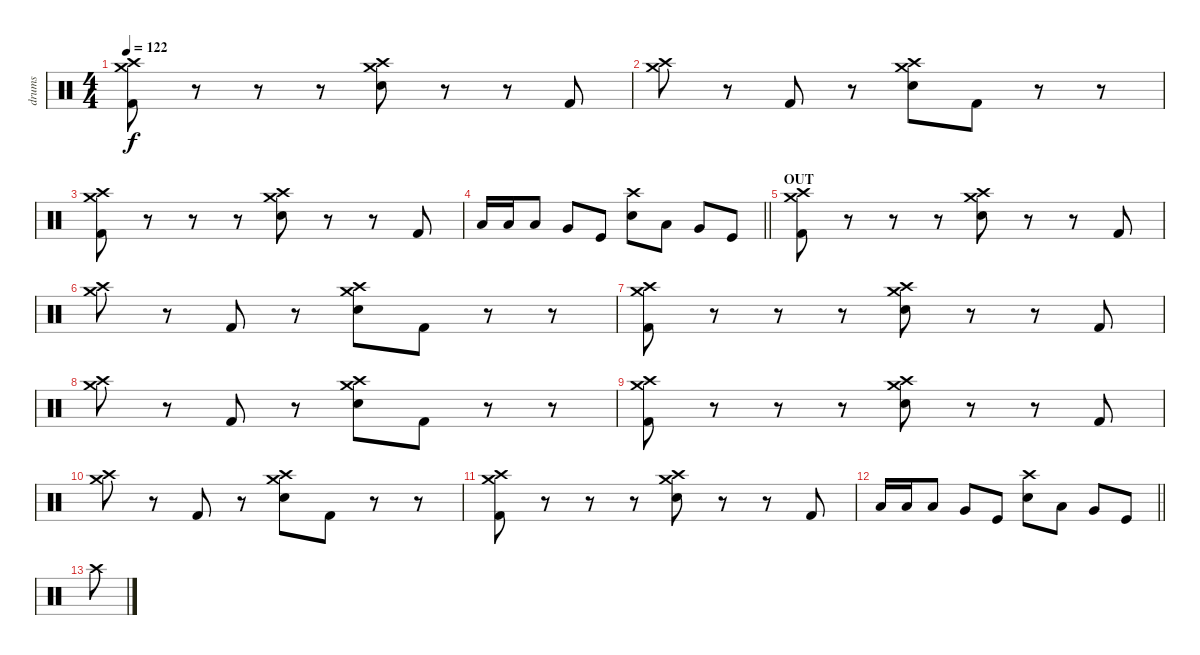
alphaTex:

\track ("drums" "drums") {instrument percussion}
\staff {score}
\articulation defaults
\ts (4 4)
\tempo 122
\clef neutral
\ks c
("Crash medium (hit)" "Crash high (hit)" "Kick (hit) 2").8{dy f} r.8 r.8 r.8 ("Crash medium (hit)" "Crash high (hit)" "Electric Snare (hit)").8 r.8 r.8 "Kick (hit) 2".8 |
("Crash medium (hit)" "Crash high (hit)").8 r.8 "Kick (hit) 2".8 r.8 ("Crash medium (hit)" "Crash high (hit)" "Electric Snare (hit)").8 "Kick (hit) 2".8 r.8 r.8 |
("Crash medium (hit)" "Crash high (hit)" "Kick (hit) 2").8 r.8 r.8 r.8 ("Crash medium (hit)" "Crash high (hit)" "Electric Snare (hit)").8 r.8 r.8 "Kick (hit) 2".8 |
\barLineRight lightlight "Low Tom (hit)".16 "Low Tom (hit)".16 "Low Tom (hit)".8 "Very Low Tom (hit)".8 "Kick (hit)".8
("Crash high (hit)" "Electric Snare (hit)").8 "Low Tom (hit)".8 "Very Low Tom (hit)".8 "Kick (hit)".8 |
\section ("" "OUT")
("Crash medium (hit)" "Crash high (hit)" "Kick (hit) 2").8 r.8 r.8 r.8 ("Crash medium (hit)" "Crash high (hit)" "Electric Snare (hit)").8 r.8 r.8 "Kick (hit) 2".8 |
("Crash medium (hit)" "Crash high (hit)").8 r.8 "Kick (hit) 2".8 r.8 ("Crash medium (hit)" "Crash high (hit)" "Electric Snare (hit)").8 "Kick (hit) 2".8 r.8 r.8 |
("Crash medium (hit)" "Crash high (hit)" "Kick (hit) 2").8 r.8 r.8 r.8 ("Crash medium (hit)" "Crash high (hit)" "Electric Snare (hit)").8 r.8 r.8 "Kick (hit) 2".8 |
("Crash medium (hit)" "Crash high (hit)").8 r.8 "Kick (hit) 2".8 r.8 ("Crash medium (hit)" "Crash high (hit)" "Electric Snare (hit)").8 "Kick (hit) 2".8 r.8 r.8 |
("Crash medium (hit)" "Crash high (hit)" "Kick (hit) 2").8 r.8 r.8 r.8 ("Crash medium (hit)" "Crash high (hit)" "Electric Snare (hit)").8 r.8 r.8 "Kick (hit) 2".8 |
("Crash medium (hit)" "Crash high (hit)").8 r.8 "Kick (hit) 2".8 r.8 ("Crash medium (hit)" "Crash high (hit)" "Electric Snare (hit)").8 "Kick (hit) 2".8 r.8 r.8 |
("Crash medium (hit)" "Crash high (hit)" "Kick (hit) 2").8 r.8 r.8 r.8 ("Crash medium (hit)" "Crash high (hit)" "Electric Snare (hit)").8 r.8 r.8 "Kick (hit) 2".8 |
\barLineRight lightlight "Low Tom (hit)".16 "Low Tom (hit)".16 "Low Tom (hit)".8 "Very Low Tom (hit)".8 "Kick (hit)".8
("Crash high (hit)" "Electric Snare (hit)").8 "Low Tom (hit)".8 "Very Low Tom (hit)".8 "Kick (hit)".8 |
"Crash high (hit)".8
